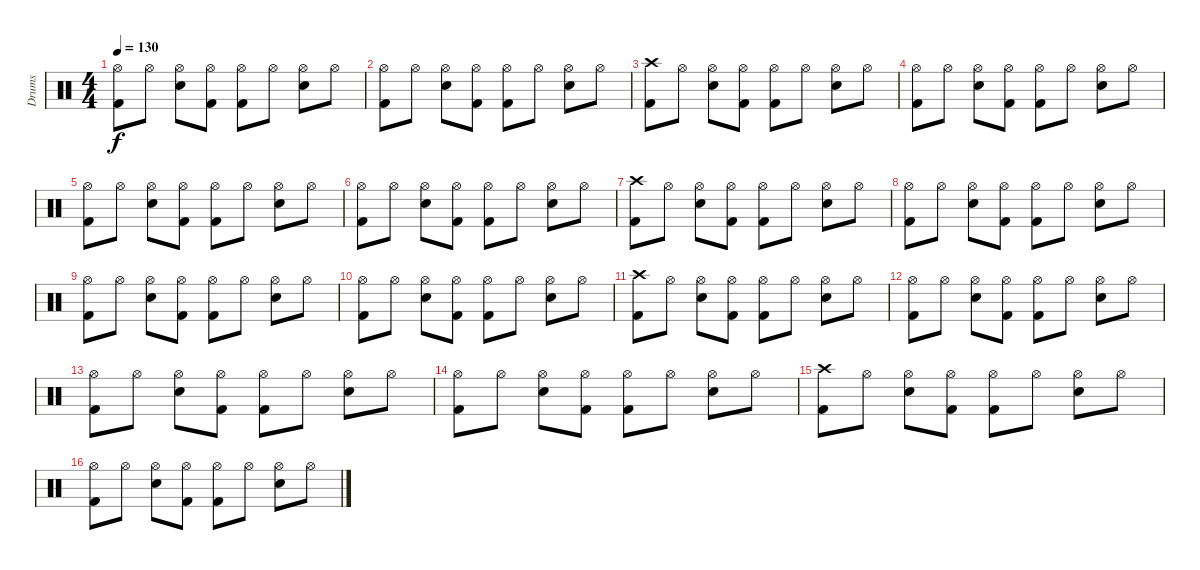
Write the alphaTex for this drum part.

\track ("Drums" "Drums") {instrument percussion}
\staff {score}
\articulation defaults
\ts (4 4)
\tempo 130
\clef neutral
\ks c
("Hi-Hat (open)" "Kick (hit) 2").8{dy f} "Hi-Hat (open)".8 ("Hi-Hat (open)" "Snare (hit) 2").8 ("Hi-Hat (open)" "Kick (hit) 2").8 ("Hi-Hat (open)" "Kick (hit) 2").8 "Hi-Hat (open)".8 ("Hi-Hat (open)" "Snare (hit) 2").8 "Hi-Hat (open)".8 |
("Hi-Hat (open)" "Kick (hit) 2").8 "Hi-Hat (open)".8 ("Hi-Hat (open)" "Snare (hit) 2").8 ("Hi-Hat (open)" "Kick (hit) 2").8 ("Hi-Hat (open)" "Kick (hit) 2").8 "Hi-Hat (open)".8 ("Hi-Hat (open)" "Snare (hit) 2").8 "Hi-Hat (open)".8 |
("Crash high (hit)" "Kick (hit) 2").8 "Hi-Hat (open)".8 ("Hi-Hat (open)" "Snare (hit) 2").8 ("Hi-Hat (open)" "Kick (hit) 2").8 ("Hi-Hat (open)" "Kick (hit) 2").8 "Hi-Hat (open)".8 ("Hi-Hat (open)" "Snare (hit) 2").8 "Hi-Hat (open)".8 |
("Hi-Hat (open)" "Kick (hit) 2").8 "Hi-Hat (open)".8 ("Hi-Hat (open)" "Snare (hit) 2").8 ("Hi-Hat (open)" "Kick (hit) 2").8 ("Hi-Hat (open)" "Kick (hit) 2").8 "Hi-Hat (open)".8 ("Hi-Hat (open)" "Snare (hit) 2").8 "Hi-Hat (open)".8 |
("Hi-Hat (open)" "Kick (hit) 2").8 "Hi-Hat (open)".8 ("Hi-Hat (open)" "Snare (hit) 2").8 ("Hi-Hat (open)" "Kick (hit) 2").8 ("Hi-Hat (open)" "Kick (hit) 2").8 "Hi-Hat (open)".8 ("Hi-Hat (open)" "Snare (hit) 2").8 "Hi-Hat (open)".8 |
("Hi-Hat (open)" "Kick (hit) 2").8 "Hi-Hat (open)".8 ("Hi-Hat (open)" "Snare (hit) 2").8 ("Hi-Hat (open)" "Kick (hit) 2").8 ("Hi-Hat (open)" "Kick (hit) 2").8 "Hi-Hat (open)".8 ("Hi-Hat (open)" "Snare (hit) 2").8 "Hi-Hat (open)".8 |
("Crash high (hit)" "Kick (hit) 2").8 "Hi-Hat (open)".8 ("Hi-Hat (open)" "Snare (hit) 2").8 ("Hi-Hat (open)" "Kick (hit) 2").8 ("Hi-Hat (open)" "Kick (hit) 2").8 "Hi-Hat (open)".8 ("Hi-Hat (open)" "Snare (hit) 2").8 "Hi-Hat (open)".8 |
("Hi-Hat (open)" "Kick (hit) 2").8 "Hi-Hat (open)".8 ("Hi-Hat (open)" "Snare (hit) 2").8 ("Hi-Hat (open)" "Kick (hit) 2").8 ("Hi-Hat (open)" "Kick (hit) 2").8 "Hi-Hat (open)".8 ("Hi-Hat (open)" "Snare (hit) 2").8 "Hi-Hat (open)".8 |
("Hi-Hat (open)" "Kick (hit) 2").8 "Hi-Hat (open)".8 ("Hi-Hat (open)" "Snare (hit) 2").8 ("Hi-Hat (open)" "Kick (hit) 2").8 ("Hi-Hat (open)" "Kick (hit) 2").8 "Hi-Hat (open)".8 ("Hi-Hat (open)" "Snare (hit) 2").8 "Hi-Hat (open)".8 |
("Hi-Hat (open)" "Kick (hit) 2").8 "Hi-Hat (open)".8 ("Hi-Hat (open)" "Snare (hit) 2").8 ("Hi-Hat (open)" "Kick (hit) 2").8 ("Hi-Hat (open)" "Kick (hit) 2").8 "Hi-Hat (open)".8 ("Hi-Hat (open)" "Snare (hit) 2").8 "Hi-Hat (open)".8 |
("Crash high (hit)" "Kick (hit) 2").8 "Hi-Hat (open)".8 ("Hi-Hat (open)" "Snare (hit) 2").8 ("Hi-Hat (open)" "Kick (hit) 2").8 ("Hi-Hat (open)" "Kick (hit) 2").8 "Hi-Hat (open)".8 ("Hi-Hat (open)" "Snare (hit) 2").8 "Hi-Hat (open)".8 |
("Hi-Hat (open)" "Kick (hit) 2").8 "Hi-Hat (open)".8 ("Hi-Hat (open)" "Snare (hit) 2").8 ("Hi-Hat (open)" "Kick (hit) 2").8 ("Hi-Hat (open)" "Kick (hit) 2").8 "Hi-Hat (open)".8 ("Hi-Hat (open)" "Snare (hit) 2").8 "Hi-Hat (open)".8 |
("Hi-Hat (open)" "Kick (hit) 2").8 "Hi-Hat (open)".8 ("Hi-Hat (open)" "Snare (hit) 2").8 ("Hi-Hat (open)" "Kick (hit) 2").8 ("Hi-Hat (open)" "Kick (hit) 2").8 "Hi-Hat (open)".8 ("Hi-Hat (open)" "Snare (hit) 2").8 "Hi-Hat (open)".8 |
("Hi-Hat (open)" "Kick (hit) 2").8 "Hi-Hat (open)".8 ("Hi-Hat (open)" "Snare (hit) 2").8 ("Hi-Hat (open)" "Kick (hit) 2").8 ("Hi-Hat (open)" "Kick (hit) 2").8 "Hi-Hat (open)".8 ("Hi-Hat (open)" "Snare (hit) 2").8 "Hi-Hat (open)".8 |
("Crash high (hit)" "Kick (hit) 2").8 "Hi-Hat (open)".8 ("Hi-Hat (open)" "Snare (hit) 2").8 ("Hi-Hat (open)" "Kick (hit) 2").8 ("Hi-Hat (open)" "Kick (hit) 2").8 "Hi-Hat (open)".8 ("Hi-Hat (open)" "Snare (hit) 2").8 "Hi-Hat (open)".8 |
("Hi-Hat (open)" "Kick (hit) 2").8 "Hi-Hat (open)".8 ("Hi-Hat (open)" "Snare (hit) 2").8 ("Hi-Hat (open)" "Kick (hit) 2").8 ("Hi-Hat (open)" "Kick (hit) 2").8 "Hi-Hat (open)".8 ("Hi-Hat (open)" "Snare (hit) 2").8 "Hi-Hat (open)".8
